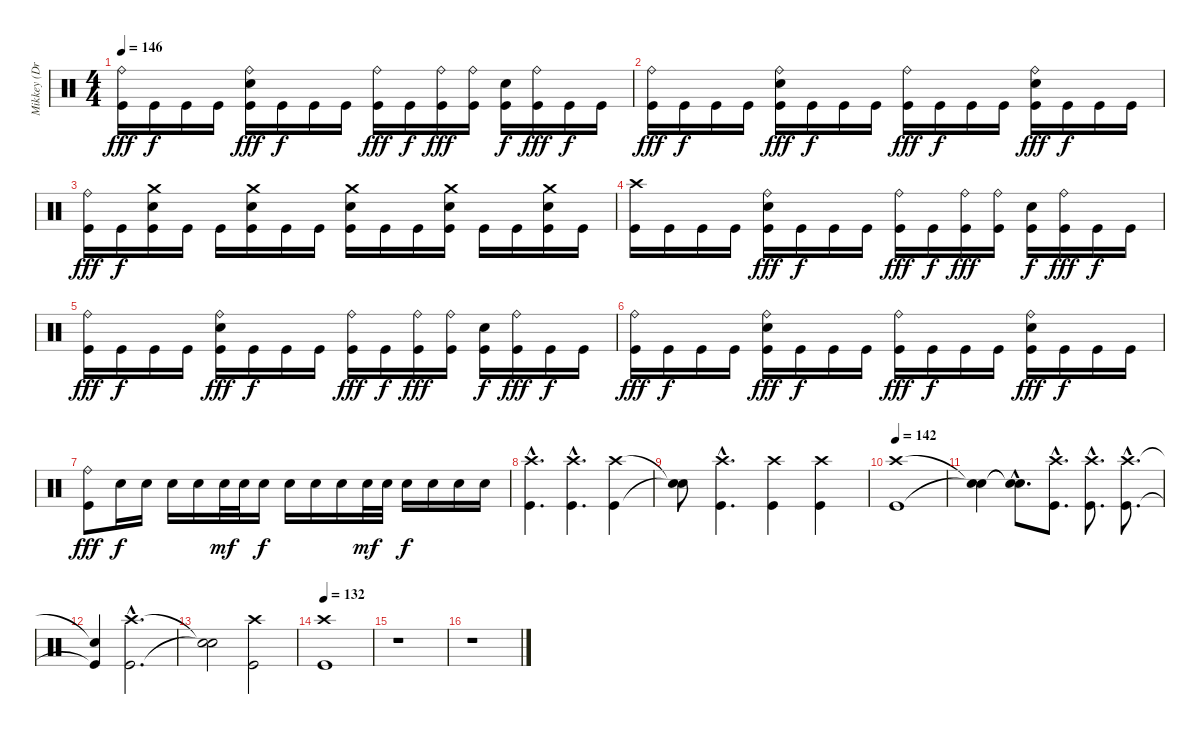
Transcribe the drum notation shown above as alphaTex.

\track ("Mikkey (Drums)" "Mikkey (Dr") {instrument percussion}
\staff {score}
\articulation defaults
\ts (4 4)
\tempo 146
\clef neutral
\ks c
("Ride (bell)" "Kick (hit)").16{dy fff} "Kick (hit)".16{dy f} "Kick (hit)".16 "Kick (hit)".16 ("Ride (bell)" "Electric Snare (hit)" "Kick (hit)").16{dy fff} "Kick (hit)".16{dy f} "Kick (hit)".16 "Kick (hit)".16 ("Ride (bell)" "Kick (hit)").16{dy fff} "Kick (hit)".16{dy f} ("Ride (bell)" "Kick (hit)").16{dy fff} ("Ride (bell)" "Kick (hit)").16 ("Electric Snare (hit)" "Kick (hit)").16{dy f} ("Ride (bell)" "Kick (hit)").16{dy fff} "Kick (hit)".16{dy f} "Kick (hit)".16 |
("Ride (bell)" "Kick (hit)").16{dy fff} "Kick (hit)".16{dy f} "Kick (hit)".16 "Kick (hit)".16 ("Ride (bell)" "Electric Snare (hit)" "Kick (hit)").16{dy fff} "Kick (hit)".16{dy f} "Kick (hit)".16 "Kick (hit)".16 ("Ride (bell)" "Kick (hit)").16{dy fff} "Kick (hit)".16{dy f} "Kick (hit)".16 "Kick (hit)".16 ("Ride (bell)" "Electric Snare (hit)" "Kick (hit)").16{dy fff} "Kick (hit)".16{dy f} "Kick (hit)".16 "Kick (hit)".16 |
("Ride (bell)" "Kick (hit)").16{dy fff} "Kick (hit)".16{dy f} ("Crash medium (hit)" "Electric Snare (hit)" "Kick (hit)").16 "Kick (hit)".16 "Kick (hit)".16 ("Crash medium (hit)" "Electric Snare (hit)" "Kick (hit)").16 "Kick (hit)".16 "Kick (hit)".16 ("Crash medium (hit)" "Electric Snare (hit)" "Kick (hit)").16 "Kick (hit)".16 "Kick (hit)".16 ("Crash medium (hit)" "Electric Snare (hit)" "Kick (hit)").16 "Kick (hit)".16 "Kick (hit)".16 ("Crash medium (hit)" "Electric Snare (hit)" "Kick (hit)").16 "Kick (hit)".16 |
("Crash high (hit)" "Kick (hit)").16 "Kick (hit)".16 "Kick (hit)".16 "Kick (hit)".16 ("Ride (bell)" "Electric Snare (hit)" "Kick (hit)").16{dy fff} "Kick (hit)".16{dy f} "Kick (hit)".16 "Kick (hit)".16 ("Ride (bell)" "Kick (hit)").16{dy fff} "Kick (hit)".16{dy f} ("Ride (bell)" "Kick (hit)").16{dy fff} ("Ride (bell)" "Kick (hit)").16 ("Electric Snare (hit)" "Kick (hit)").16{dy f} ("Ride (bell)" "Kick (hit)").16{dy fff} "Kick (hit)".16{dy f} "Kick (hit)".16 |
("Ride (bell)" "Kick (hit)").16{dy fff} "Kick (hit)".16{dy f} "Kick (hit)".16 "Kick (hit)".16 ("Ride (bell)" "Electric Snare (hit)" "Kick (hit)").16{dy fff} "Kick (hit)".16{dy f} "Kick (hit)".16 "Kick (hit)".16 ("Ride (bell)" "Kick (hit)").16{dy fff} "Kick (hit)".16{dy f} ("Ride (bell)" "Kick (hit)").16{dy fff} ("Ride (bell)" "Kick (hit)").16 ("Electric Snare (hit)" "Kick (hit)").16{dy f} ("Ride (bell)" "Kick (hit)").16{dy fff} "Kick (hit)".16{dy f} "Kick (hit)".16 |
("Ride (bell)" "Kick (hit)").16{dy fff} "Kick (hit)".16{dy f} "Kick (hit)".16 "Kick (hit)".16 ("Ride (bell)" "Electric Snare (hit)" "Kick (hit)").16{dy fff} "Kick (hit)".16{dy f} "Kick (hit)".16 "Kick (hit)".16 ("Ride (bell)" "Kick (hit)").16{dy fff} "Kick (hit)".16{dy f} "Kick (hit)".16 "Kick (hit)".16 ("Ride (bell)" "Electric Snare (hit)" "Kick (hit)").16{dy fff} "Kick (hit)".16{dy f} "Kick (hit)".16 "Kick (hit)".16 |
("Ride (bell)" "Kick (hit)").8{dy fff} "Electric Snare (hit)".16{dy f} "Electric Snare (hit)".16 "Electric Snare (hit)".16 "Electric Snare (hit)".16 "Electric Snare (hit)".32{dy mf} "Electric Snare (hit)".32 "Electric Snare (hit)".16{dy f} "Electric Snare (hit)".16 "Electric Snare (hit)".16 "Electric Snare (hit)".16 "Electric Snare (hit)".32{dy mf} "Electric Snare (hit)".32 "Electric Snare (hit)".16{dy f} "Electric Snare (hit)".16 "Electric Snare (hit)".16 "Electric Snare (hit)".16 |
("Crash high (hit)"{hac} "Kick (hit)"{hac}).4{d} ("Crash high (hit)"{hac} "Kick (hit)"{hac}).4{d} ("Crash high (hit)" "Kick (hit)").4 |
("Snare (hit)"{t} "Snare (hit)"{t}).8 ("Crash high (hit)"{hac} "Kick (hit)"{hac}).4{d} ("Crash high (hit)" "Kick (hit)").4 ("Crash high (hit)" "Kick (hit)").4 |
\tempo 142
("Crash high (hit)" "Kick (hit)").1 |
("Snare (hit)"{t} "Snare (hit)"{t}).4 ("Snare (hit)"{hac t} "Snare (hit)"{hac t}).8{d} ("Crash high (hit)"{hac} "Kick (hit)"{hac}).8{d} ("Crash high (hit)"{hac} "Kick (hit)"{hac}).8{d} ("Crash high (hit)"{hac} "Kick (hit)"{hac}).8{d} |
("Snare (hit)"{t} "Kick (hit)"{t}).4 ("Crash high (hit)"{hac} "Kick (hit)"{hac}).2{d} |
("Snare (hit)"{t} "Snare (hit)"{t}).2 ("Crash high (hit)" "Kick (hit)").2 |
\tempo 132
("Crash high (hit)" "Kick (hit)").1 |
r.1 |
r.1
